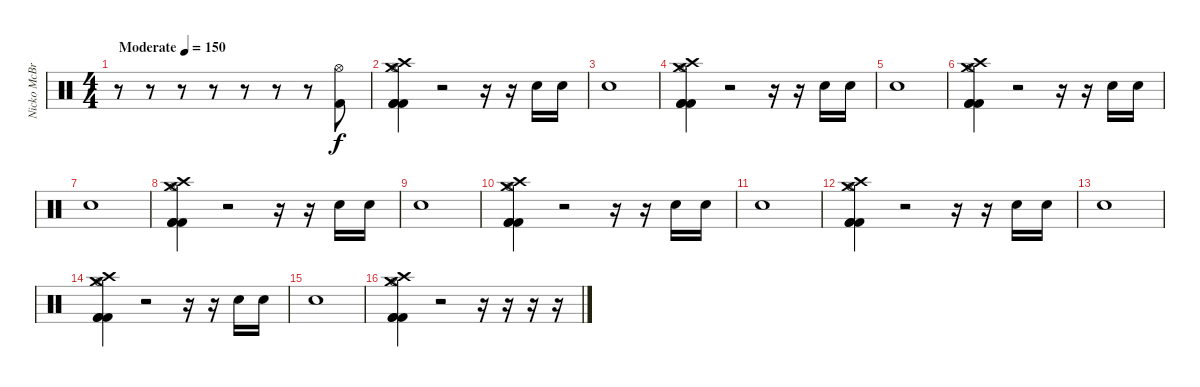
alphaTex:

\track ("Nicko McBrain" "Nicko McBr") {instrument percussion}
\staff {score}
\articulation defaults
\ts (4 4)
\tempo (150 "Moderate")
\clef neutral
\ks c
r.8{dy f} r.8 r.8 r.8 r.8 r.8 r.8 ("Hi-Hat (open)" "Kick (hit) 2").8 |
("Crash medium (hit)" "Crash high (hit)" "Hi-Hat (open)" "Kick (hit) 2" "Kick (hit) 2" "Kick (hit) 2").4 r.2 r.16 r.16 "Snare (hit) 2".16 "Snare (hit) 2".16 |
"Snare (hit) 2".1 |
("Crash medium (hit)" "Crash high (hit)" "Hi-Hat (open)" "Kick (hit) 2" "Kick (hit) 2" "Kick (hit) 2").4 r.2 r.16 r.16 "Snare (hit) 2".16 "Snare (hit) 2".16 |
"Snare (hit) 2".1 |
("Crash medium (hit)" "Crash high (hit)" "Hi-Hat (open)" "Kick (hit) 2" "Kick (hit) 2" "Kick (hit) 2").4 r.2 r.16 r.16 "Snare (hit) 2".16 "Snare (hit) 2".16 |
"Snare (hit) 2".1 |
("Crash medium (hit)" "Crash high (hit)" "Hi-Hat (open)" "Kick (hit) 2" "Kick (hit) 2" "Kick (hit) 2").4 r.2 r.16 r.16 "Snare (hit) 2".16 "Snare (hit) 2".16 |
"Snare (hit) 2".1 |
("Crash medium (hit)" "Crash high (hit)" "Hi-Hat (open)" "Kick (hit) 2" "Kick (hit) 2" "Kick (hit) 2").4 r.2 r.16 r.16 "Snare (hit) 2".16 "Snare (hit) 2".16 |
"Snare (hit) 2".1 |
("Crash medium (hit)" "Crash high (hit)" "Hi-Hat (open)" "Kick (hit) 2" "Kick (hit) 2" "Kick (hit) 2").4 r.2 r.16 r.16 "Snare (hit) 2".16 "Snare (hit) 2".16 |
"Snare (hit) 2".1 |
("Crash medium (hit)" "Crash high (hit)" "Hi-Hat (open)" "Kick (hit) 2" "Kick (hit) 2" "Kick (hit) 2").4 r.2 r.16 r.16 "Snare (hit) 2".16 "Snare (hit) 2".16 |
"Snare (hit) 2".1 |
("Crash medium (hit)" "Crash high (hit)" "Hi-Hat (open)" "Kick (hit) 2" "Kick (hit) 2" "Kick (hit) 2").4 r.2 r.16 r.16 r.16 r.16
